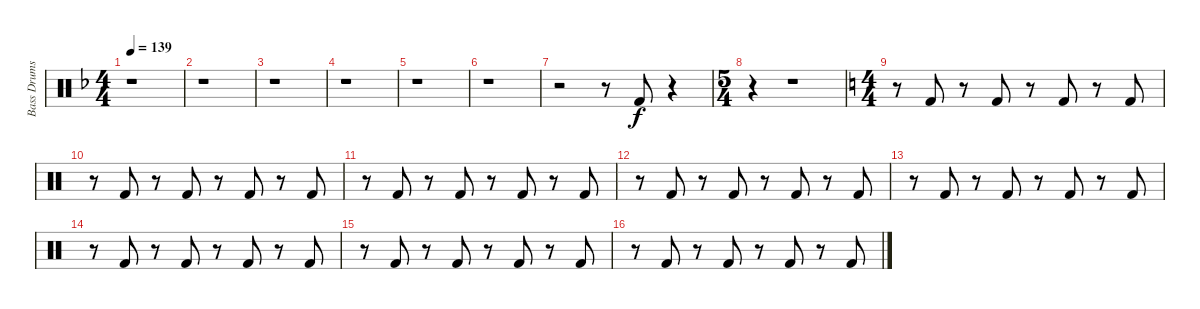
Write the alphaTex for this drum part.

\track ("Bass Drums" "Bass Drums") {instrument percussion}
\staff {score}
\articulation defaults
\ts (4 4)
\tempo 139
\clef neutral
\ks f
r.1{dy f} |
r.1 |
r.1 |
r.1 |
r.1 |
r.1 |
r.2 r.8 "Kick (hit) 2".8 r.4 |
\ts (5 4)
r.4 r.1 |
\ts (4 4)
\ks c
r.8 "Kick (hit) 2".8 r.8 "Kick (hit) 2".8 r.8 "Kick (hit) 2".8 r.8 "Kick (hit) 2".8 |
r.8 "Kick (hit) 2".8 r.8 "Kick (hit) 2".8 r.8 "Kick (hit) 2".8 r.8 "Kick (hit) 2".8 |
r.8 "Kick (hit) 2".8 r.8 "Kick (hit) 2".8 r.8 "Kick (hit) 2".8 r.8 "Kick (hit) 2".8 |
r.8 "Kick (hit) 2".8 r.8 "Kick (hit) 2".8 r.8 "Kick (hit) 2".8 r.8 "Kick (hit) 2".8 |
r.8 "Kick (hit) 2".8 r.8 "Kick (hit) 2".8 r.8 "Kick (hit) 2".8 r.8 "Kick (hit) 2".8 |
r.8 "Kick (hit) 2".8 r.8 "Kick (hit) 2".8 r.8 "Kick (hit) 2".8 r.8 "Kick (hit) 2".8 |
r.8 "Kick (hit) 2".8 r.8 "Kick (hit) 2".8 r.8 "Kick (hit) 2".8 r.8 "Kick (hit) 2".8 |
r.8 "Kick (hit) 2".8 r.8 "Kick (hit) 2".8 r.8 "Kick (hit) 2".8 r.8 "Kick (hit) 2".8
